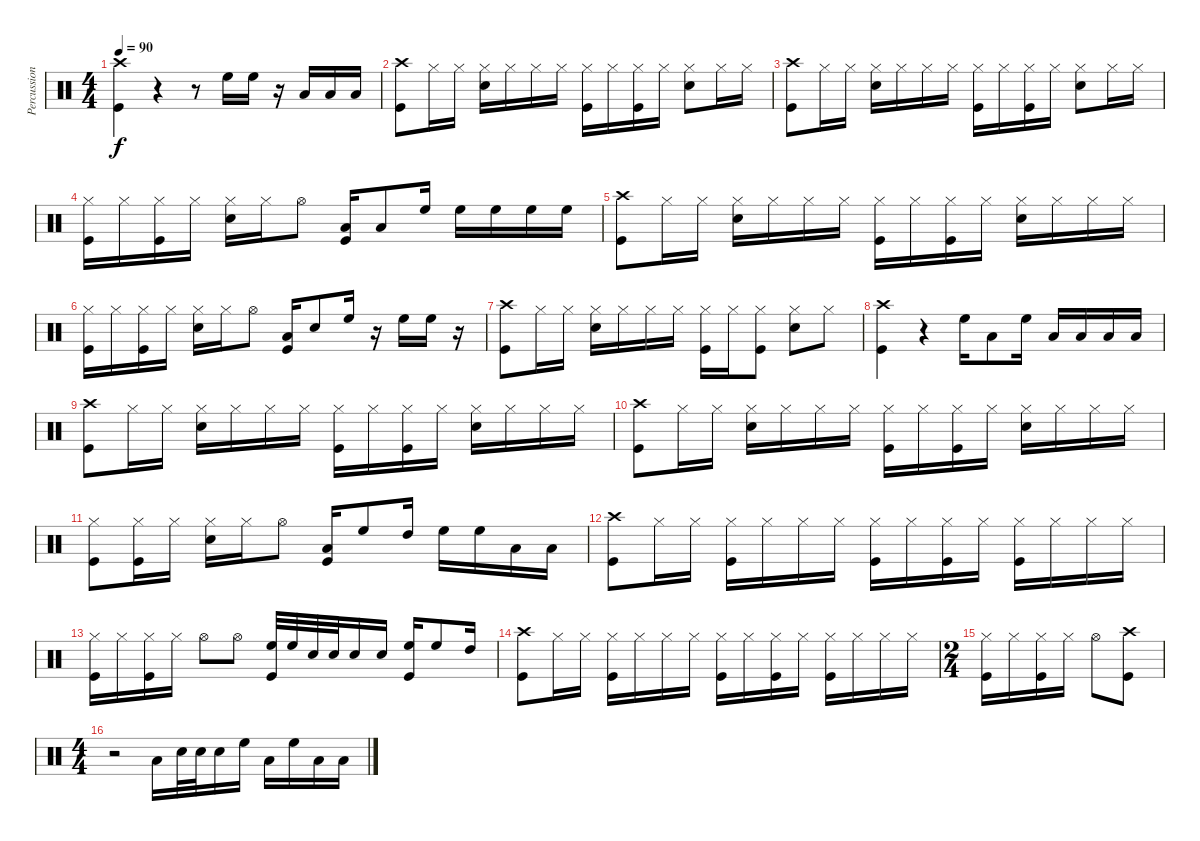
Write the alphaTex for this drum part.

\track ("Percussion" "Percussion") {instrument percussion}
\staff {score}
\articulation defaults
\ts (4 4)
\tempo 90
\clef neutral
\ks c
("Crash high (hit)" "Kick (hit)").4{dy f} r.4 r.8 "High Floor Tom (hit)".16 "High Floor Tom (hit)".16 r.16 "Low Tom (hit)".16 "Low Tom (hit)".16 "Low Tom (hit)".16 |
("Crash high (hit)" "Kick (hit)").8 "Hi-Hat (closed)".16 "Hi-Hat (closed)".16 ("Hi-Hat (closed)" "Snare (hit) 2").16 "Hi-Hat (closed)".16 "Hi-Hat (closed)".16 "Hi-Hat (closed)".16 ("Hi-Hat (closed)" "Kick (hit)").16 "Hi-Hat (closed)".16 ("Hi-Hat (closed)" "Kick (hit)").16 "Hi-Hat (closed)".16 ("Hi-Hat (closed)" "Snare (hit) 2").8 "Hi-Hat (closed)".16 "Hi-Hat (closed)".16 |
("Crash high (hit)" "Kick (hit)").8 "Hi-Hat (closed)".16 "Hi-Hat (closed)".16 ("Hi-Hat (closed)" "Snare (hit) 2").16 "Hi-Hat (closed)".16 "Hi-Hat (closed)".16 "Hi-Hat (closed)".16 ("Hi-Hat (closed)" "Kick (hit)").16 "Hi-Hat (closed)".16 ("Hi-Hat (closed)" "Kick (hit)").16 "Hi-Hat (closed)".16 ("Hi-Hat (closed)" "Snare (hit) 2").8 "Hi-Hat (closed)".16 "Hi-Hat (closed)".16 |
("Hi-Hat (closed)" "Kick (hit)").16 "Hi-Hat (closed)".16 ("Hi-Hat (closed)" "Kick (hit)").16 "Hi-Hat (closed)".16 ("Hi-Hat (closed)" "Snare (hit) 2").16 "Hi-Hat (closed)".16 "Hi-Hat (open)".8 ("Low Tom (hit)" "Kick (hit)").16 "Low Tom (hit)".8 "High Floor Tom (hit)".16 "High Floor Tom (hit)".16 "High Floor Tom (hit)".16 "High Floor Tom (hit)".16 "High Floor Tom (hit)".16 |
("Crash high (hit)" "Kick (hit)").8 "Hi-Hat (closed)".16 "Hi-Hat (closed)".16 ("Hi-Hat (closed)" "Snare (hit) 2").16 "Hi-Hat (closed)".16 "Hi-Hat (closed)".16 "Hi-Hat (closed)".16 ("Hi-Hat (closed)" "Kick (hit)").16 "Hi-Hat (closed)".16 ("Hi-Hat (closed)" "Kick (hit)").16 "Hi-Hat (closed)".16 ("Hi-Hat (closed)" "Snare (hit) 2").16 "Hi-Hat (closed)".16 "Hi-Hat (closed)".16 "Hi-Hat (closed)".16 |
("Hi-Hat (closed)" "Kick (hit)").16 "Hi-Hat (closed)".16 ("Hi-Hat (closed)" "Kick (hit)").16 "Hi-Hat (closed)".16 ("Hi-Hat (closed)" "Snare (hit) 2").16 "Hi-Hat (closed)".16 "Hi-Hat (open)".8 ("Low Tom (hit)" "Kick (hit)").16 "Snare (hit) 2".8 "High Floor Tom (hit)".16 r.16 "High Floor Tom (hit)".16 "High Floor Tom (hit)".16 r.16 |
("Crash high (hit)" "Kick (hit)").8 "Hi-Hat (closed)".16 "Hi-Hat (closed)".16 ("Hi-Hat (closed)" "Snare (hit) 2").16 "Hi-Hat (closed)".16 "Hi-Hat (closed)".16 "Hi-Hat (closed)".16 ("Hi-Hat (closed)" "Kick (hit)").16 "Hi-Hat (closed)".16 ("Hi-Hat (closed)" "Kick (hit)").8 ("Hi-Hat (closed)" "Snare (hit) 2").8 "Hi-Hat (closed)".8 |
("Crash high (hit)" "Kick (hit)").4 r.4 "High Floor Tom (hit)".16 "Low Tom (hit)".8 "High Floor Tom (hit)".16 "Low Tom (hit)".16 "Low Tom (hit)".16 "Low Tom (hit)".16 "Low Tom (hit)".16 |
("Crash high (hit)" "Kick (hit)").8 "Hi-Hat (closed)".16 "Hi-Hat (closed)".16 ("Hi-Hat (closed)" "Snare (hit) 2").16 "Hi-Hat (closed)".16 "Hi-Hat (closed)".16 "Hi-Hat (closed)".16 ("Hi-Hat (closed)" "Kick (hit)").16 "Hi-Hat (closed)".16 ("Hi-Hat (closed)" "Kick (hit)").16 "Hi-Hat (closed)".16 ("Hi-Hat (closed)" "Snare (hit) 2").16 "Hi-Hat (closed)".16 "Hi-Hat (closed)".16 "Hi-Hat (closed)".16 |
("Crash high (hit)" "Kick (hit)").8 "Hi-Hat (closed)".16 "Hi-Hat (closed)".16 ("Hi-Hat (closed)" "Snare (hit) 2").16 "Hi-Hat (closed)".16 "Hi-Hat (closed)".16 "Hi-Hat (closed)".16 ("Hi-Hat (closed)" "Kick (hit)").16 "Hi-Hat (closed)".16 ("Hi-Hat (closed)" "Kick (hit)").16 "Hi-Hat (closed)".16 ("Hi-Hat (closed)" "Snare (hit) 2").16 "Hi-Hat (closed)".16 "Hi-Hat (closed)".16 "Hi-Hat (closed)".16 |
("Hi-Hat (closed)" "Kick (hit)").8 ("Hi-Hat (closed)" "Kick (hit)").16 "Hi-Hat (closed)".16 ("Hi-Hat (closed)" "Snare (hit) 2").16 "Hi-Hat (closed)".16 "Hi-Hat (open)".8 ("Low Tom (hit)" "Kick (hit)").16 "High Floor Tom (hit)".8 "High Tom (hit)".16 "High Floor Tom (hit)".16 "High Floor Tom (hit)".16 "Low Tom (hit)".16 "Low Tom (hit)".16 |
("Crash high (hit)" "Kick (hit)").8 "Hi-Hat (closed)".16 "Hi-Hat (closed)".16 ("Hi-Hat (closed)" "Kick (hit)").16 "Hi-Hat (closed)".16 "Hi-Hat (closed)".16 "Hi-Hat (closed)".16 ("Hi-Hat (closed)" "Kick (hit)").16 "Hi-Hat (closed)".16 ("Hi-Hat (closed)" "Kick (hit)").16 "Hi-Hat (closed)".16 ("Hi-Hat (closed)" "Kick (hit)").16 "Hi-Hat (closed)".16 "Hi-Hat (closed)".16 "Hi-Hat (closed)".16 |
("Hi-Hat (closed)" "Kick (hit)").16 "Hi-Hat (closed)".16 ("Hi-Hat (closed)" "Kick (hit)").16 "Hi-Hat (closed)".16 "Hi-Hat (open)".8 "Hi-Hat (open)".8 ("High Floor Tom (hit)" "Kick (hit)").32 "High Floor Tom (hit)".32 "Snare (hit) 2".32 "Snare (hit) 2".32 "Snare (hit) 2".16 "Snare (hit) 2".16 ("High Floor Tom (hit)" "Kick (hit)").16 "High Floor Tom (hit)".8 "High Tom (hit)".16 |
("Crash high (hit)" "Kick (hit)").8 "Hi-Hat (closed)".16 "Hi-Hat (closed)".16 ("Hi-Hat (closed)" "Kick (hit)").16 "Hi-Hat (closed)".16 "Hi-Hat (closed)".16 "Hi-Hat (closed)".16 ("Hi-Hat (closed)" "Kick (hit)").16 "Hi-Hat (closed)".16 ("Hi-Hat (closed)" "Kick (hit)").16 "Hi-Hat (closed)".16 ("Hi-Hat (closed)" "Kick (hit)").16 "Hi-Hat (closed)".16 "Hi-Hat (closed)".16 "Hi-Hat (closed)".16 |
\ts (2 4)
("Hi-Hat (closed)" "Kick (hit)").16 "Hi-Hat (closed)".16 ("Hi-Hat (closed)" "Kick (hit)").16 "Hi-Hat (closed)".16 "Hi-Hat (open)".8 ("Crash high (hit)" "Kick (hit)").8 |
\ts (4 4)
r.2 "Low Tom (hit)".16 "Snare (hit) 2".32 "Snare (hit) 2".32 "Snare (hit) 2".16 "High Floor Tom (hit)".16 "Low Tom (hit)".16 "High Floor Tom (hit)".16 "Low Tom (hit)".16 "Low Tom (hit)".16
